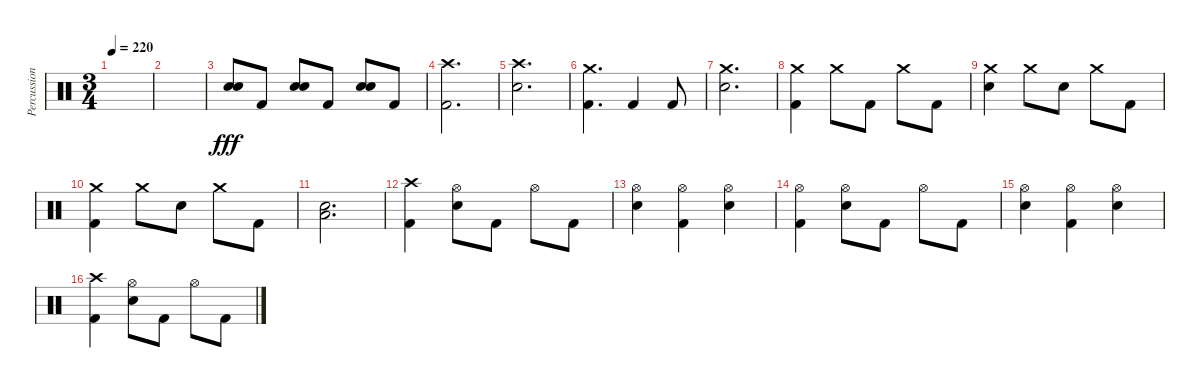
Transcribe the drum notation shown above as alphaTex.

\track ("Percussions" "Percussion") {instrument percussion}
\staff {score}
\articulation defaults
\ts (3 4)
\tempo 220
\clef neutral
\ks c
|
|
("Electric Snare (hit)" "Electric Snare (hit)").8{bd 240 dy fff} "Kick (hit) 2".8 ("Electric Snare (hit)" "Electric Snare (hit)").8{bd 240} "Kick (hit) 2".8 ("Electric Snare (hit)" "Electric Snare (hit)").8{bd 240} "Kick (hit) 2".8 |
("Crash high (hit)" "Kick (hit) 2").2{d} |
("Crash high (hit)" "Electric Snare (hit)").2{d} |
("Crash medium (hit)" "Kick (hit) 2").4{d} "Kick (hit) 2".4 "Kick (hit) 2".8 |
("Crash medium (hit)" "Electric Snare (hit)").2{d} |
("Crash medium (hit)" "Kick (hit) 2").4 "Crash medium (hit)".8 "Kick (hit) 2".8 "Crash medium (hit)".8 "Kick (hit) 2".8 |
("Crash medium (hit)" "Electric Snare (hit)").4 "Crash medium (hit)".8 "Electric Snare (hit)".8 "Crash medium (hit)".8 "Kick (hit) 2".8 |
("Crash medium (hit)" "Kick (hit) 2").4 "Crash medium (hit)".8 "Electric Snare (hit)".8 "Crash medium (hit)".8 "Kick (hit) 2".8 |
("Low Floor Tom (hit)" "Electric Snare (hit)").2{d bd 240} |
("Crash high (hit)" "Kick (hit) 2").4 ("Hi-Hat (open)" "Electric Snare (hit)").8 "Kick (hit) 2".8 "Hi-Hat (open)".8 "Kick (hit) 2".8 |
("Hi-Hat (open)" "Electric Snare (hit)").4 ("Hi-Hat (open)" "Kick (hit) 2").4 ("Hi-Hat (open)" "Electric Snare (hit)").4 |
("Hi-Hat (open)" "Kick (hit) 2").4 ("Hi-Hat (open)" "Electric Snare (hit)").8 "Kick (hit) 2".8 "Hi-Hat (open)".8 "Kick (hit) 2".8 |
("Hi-Hat (open)" "Electric Snare (hit)").4 ("Hi-Hat (open)" "Kick (hit) 2").4 ("Hi-Hat (open)" "Electric Snare (hit)").4 |
("Crash high (hit)" "Kick (hit) 2").4 ("Hi-Hat (open)" "Electric Snare (hit)").8 "Kick (hit) 2".8 "Hi-Hat (open)".8 "Kick (hit) 2".8
